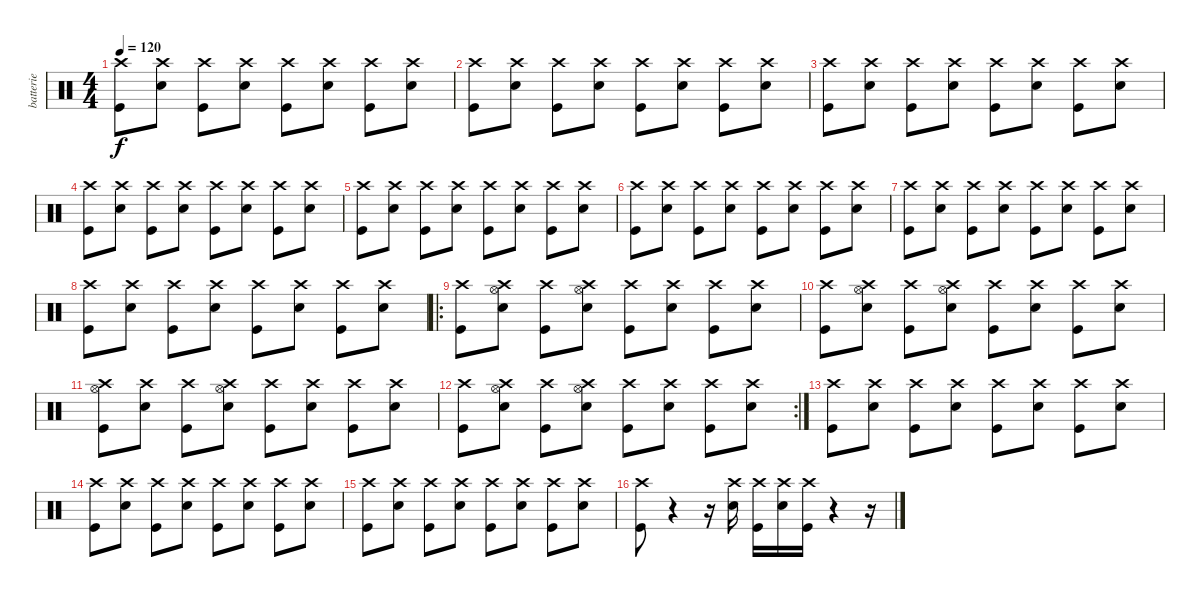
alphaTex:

\track ("batterie" "batterie") {instrument percussion}
\staff {score}
\articulation defaults
\ts (4 4)
\tempo 120
\clef neutral
\ks c
("Crash high (hit)" "Kick (hit)").8{dy f} ("Crash high (hit)" "Snare (hit) 2").8 ("Crash high (hit)" "Kick (hit)").8 ("Crash high (hit)" "Snare (hit) 2").8 ("Crash high (hit)" "Kick (hit)").8 ("Crash high (hit)" "Snare (hit) 2").8 ("Crash high (hit)" "Kick (hit)").8 ("Crash high (hit)" "Snare (hit) 2").8 |
("Crash high (hit)" "Kick (hit)").8 ("Crash high (hit)" "Snare (hit) 2").8 ("Crash high (hit)" "Kick (hit)").8 ("Crash high (hit)" "Snare (hit) 2").8 ("Crash high (hit)" "Kick (hit)").8 ("Crash high (hit)" "Snare (hit) 2").8 ("Crash high (hit)" "Kick (hit)").8 ("Crash high (hit)" "Snare (hit) 2").8 |
("Crash high (hit)" "Kick (hit)").8 ("Crash high (hit)" "Snare (hit) 2").8 ("Crash high (hit)" "Kick (hit)").8 ("Crash high (hit)" "Snare (hit) 2").8 ("Crash high (hit)" "Kick (hit)").8 ("Crash high (hit)" "Snare (hit) 2").8 ("Crash high (hit)" "Kick (hit)").8 ("Crash high (hit)" "Snare (hit) 2").8 |
("Crash high (hit)" "Kick (hit)").8 ("Crash high (hit)" "Snare (hit) 2").8 ("Crash high (hit)" "Kick (hit)").8 ("Crash high (hit)" "Snare (hit) 2").8 ("Crash high (hit)" "Kick (hit)").8 ("Crash high (hit)" "Snare (hit) 2").8 ("Crash high (hit)" "Kick (hit)").8 ("Crash high (hit)" "Snare (hit) 2").8 |
("Crash high (hit)" "Kick (hit)").8 ("Crash high (hit)" "Snare (hit) 2").8 ("Crash high (hit)" "Kick (hit)").8 ("Crash high (hit)" "Snare (hit) 2").8 ("Crash high (hit)" "Kick (hit)").8 ("Crash high (hit)" "Snare (hit) 2").8 ("Crash high (hit)" "Kick (hit)").8 ("Crash high (hit)" "Snare (hit) 2").8 |
("Crash high (hit)" "Kick (hit)").8 ("Crash high (hit)" "Snare (hit) 2").8 ("Crash high (hit)" "Kick (hit)").8 ("Crash high (hit)" "Snare (hit) 2").8 ("Crash high (hit)" "Kick (hit)").8 ("Crash high (hit)" "Snare (hit) 2").8 ("Crash high (hit)" "Kick (hit)").8 ("Crash high (hit)" "Snare (hit) 2").8 |
("Crash high (hit)" "Kick (hit)").8 ("Crash high (hit)" "Snare (hit) 2").8 ("Crash high (hit)" "Kick (hit)").8 ("Crash high (hit)" "Snare (hit) 2").8 ("Crash high (hit)" "Kick (hit)").8 ("Crash high (hit)" "Snare (hit) 2").8 ("Crash high (hit)" "Kick (hit)").8 ("Crash high (hit)" "Snare (hit) 2").8 |
("Crash high (hit)" "Kick (hit)").8 ("Crash high (hit)" "Snare (hit) 2").8 ("Crash high (hit)" "Kick (hit)").8 ("Crash high (hit)" "Snare (hit) 2").8 ("Crash high (hit)" "Kick (hit)").8 ("Crash high (hit)" "Snare (hit) 2").8 ("Crash high (hit)" "Kick (hit)").8 ("Crash high (hit)" "Snare (hit) 2").8 |
\ro
("Crash high (hit)" "Kick (hit)").8 ("Crash high (hit)" "Hi-Hat (open)" "Snare (hit) 2").8 ("Crash high (hit)" "Kick (hit)").8 ("Crash high (hit)" "Hi-Hat (open)" "Snare (hit) 2").8 ("Crash high (hit)" "Kick (hit)").8 ("Crash high (hit)" "Snare (hit) 2").8 ("Crash high (hit)" "Kick (hit)").8 ("Crash high (hit)" "Snare (hit) 2").8 |
("Crash high (hit)" "Kick (hit)").8 ("Crash high (hit)" "Hi-Hat (open)" "Snare (hit) 2").8 ("Crash high (hit)" "Kick (hit)").8 ("Crash high (hit)" "Hi-Hat (open)" "Snare (hit) 2").8 ("Crash high (hit)" "Kick (hit)").8 ("Crash high (hit)" "Snare (hit) 2").8 ("Crash high (hit)" "Kick (hit)").8 ("Crash high (hit)" "Snare (hit) 2").8 |
("Crash high (hit)" "Hi-Hat (open)" "Kick (hit)").8 ("Crash high (hit)" "Snare (hit) 2").8 ("Crash high (hit)" "Kick (hit)").8 ("Crash high (hit)" "Hi-Hat (open)" "Snare (hit) 2").8 ("Crash high (hit)" "Kick (hit)").8 ("Crash high (hit)" "Snare (hit) 2").8 ("Crash high (hit)" "Kick (hit)").8 ("Crash high (hit)" "Snare (hit) 2").8 |
\rc 2
("Crash high (hit)" "Kick (hit)").8 ("Crash high (hit)" "Hi-Hat (open)" "Snare (hit) 2").8 ("Crash high (hit)" "Kick (hit)").8 ("Crash high (hit)" "Hi-Hat (open)" "Snare (hit) 2").8 ("Crash high (hit)" "Kick (hit)").8 ("Crash high (hit)" "Snare (hit) 2").8 ("Crash high (hit)" "Kick (hit)").8 ("Crash high (hit)" "Snare (hit) 2").8 |
("Crash high (hit)" "Kick (hit)").8 ("Crash high (hit)" "Snare (hit) 2").8 ("Crash high (hit)" "Kick (hit)").8 ("Crash high (hit)" "Snare (hit) 2").8 ("Crash high (hit)" "Kick (hit)").8 ("Crash high (hit)" "Snare (hit) 2").8 ("Crash high (hit)" "Kick (hit)").8 ("Crash high (hit)" "Snare (hit) 2").8 |
("Crash high (hit)" "Kick (hit)").8 ("Crash high (hit)" "Snare (hit) 2").8 ("Crash high (hit)" "Kick (hit)").8 ("Crash high (hit)" "Snare (hit) 2").8 ("Crash high (hit)" "Kick (hit)").8 ("Crash high (hit)" "Snare (hit) 2").8 ("Crash high (hit)" "Kick (hit)").8 ("Crash high (hit)" "Snare (hit) 2").8 |
("Crash high (hit)" "Kick (hit)").8 ("Crash high (hit)" "Snare (hit) 2").8 ("Crash high (hit)" "Kick (hit)").8 ("Crash high (hit)" "Snare (hit) 2").8 ("Crash high (hit)" "Kick (hit)").8 ("Crash high (hit)" "Snare (hit) 2").8 ("Crash high (hit)" "Kick (hit)").8 ("Crash high (hit)" "Snare (hit) 2").8 |
("Crash high (hit)" "Kick (hit)").8 r.4 r.16 ("Crash high (hit)" "Snare (hit) 2").16 ("Crash high (hit)" "Kick (hit)").16 ("Crash high (hit)" "Snare (hit) 2").16 ("Crash high (hit)" "Kick (hit)").16 r.4 r.16
